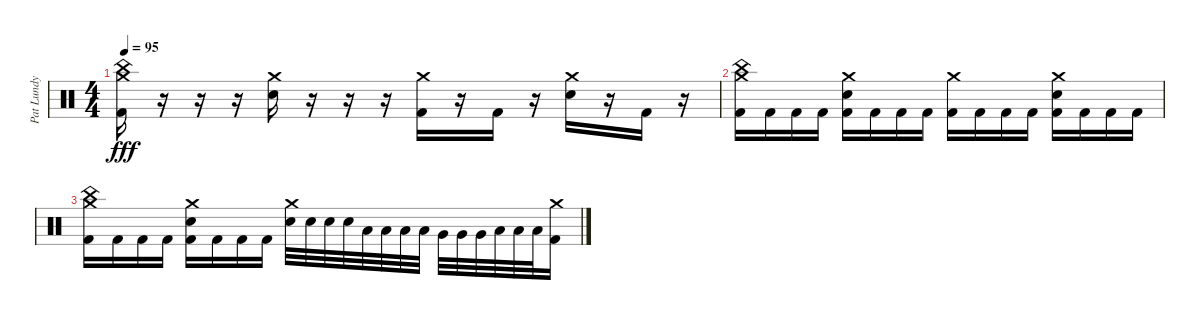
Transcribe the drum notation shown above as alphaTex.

\track ("Pat Lundy" "Pat Lundy") {instrument percussion}
\staff {score}
\articulation defaults
\ts (4 4)
\tempo 95
\clef neutral
\ks c
("Crash medium (hit)" "China (hit)" "Kick (hit) 2").16{dy fff} r.16 r.16 r.16 ("Crash medium (hit)" "Electric Snare (hit)").16 r.16 r.16 r.16 ("Crash medium (hit)" "Kick (hit) 2").16 r.16 "Kick (hit) 2".16 r.16 ("Crash medium (hit)" "Electric Snare (hit)").16 r.16 "Kick (hit) 2".16 r.16 |
("Crash medium (hit)" "China (hit)" "Kick (hit) 2").16 "Kick (hit) 2".16 "Kick (hit) 2".16 "Kick (hit) 2".16 ("Crash medium (hit)" "Electric Snare (hit)" "Kick (hit) 2").16 "Kick (hit) 2".16 "Kick (hit) 2".16 "Kick (hit) 2".16 ("Crash medium (hit)" "Kick (hit) 2").16 "Kick (hit) 2".16 "Kick (hit) 2".16 "Kick (hit) 2".16 ("Crash medium (hit)" "Electric Snare (hit)" "Kick (hit) 2").16 "Kick (hit) 2".16 "Kick (hit) 2".16 "Kick (hit) 2".16 |
("Crash medium (hit)" "China (hit)" "Kick (hit) 2").16 "Kick (hit) 2".16 "Kick (hit) 2".16 "Kick (hit) 2".16 ("Crash medium (hit)" "Electric Snare (hit)" "Kick (hit) 2").16 "Kick (hit) 2".16 "Kick (hit) 2".16 "Kick (hit) 2".16 ("Crash medium (hit)" "Electric Snare (hit)").32 "Electric Snare (hit)".32 "Electric Snare (hit)".32 "Electric Snare (hit)".32 "Low Tom (hit)".32 "Low Tom (hit)".32 "Low Tom (hit)".32 "Low Tom (hit)".32 "Very Low Tom (hit)".32 "Very Low Tom (hit)".32 "Very Low Tom (hit)".32 "Low Floor Tom (hit)".32 "Low Floor Tom (hit)".32 "Low Floor Tom (hit)".32 ("Crash medium (hit)" "Kick (hit) 2").16
